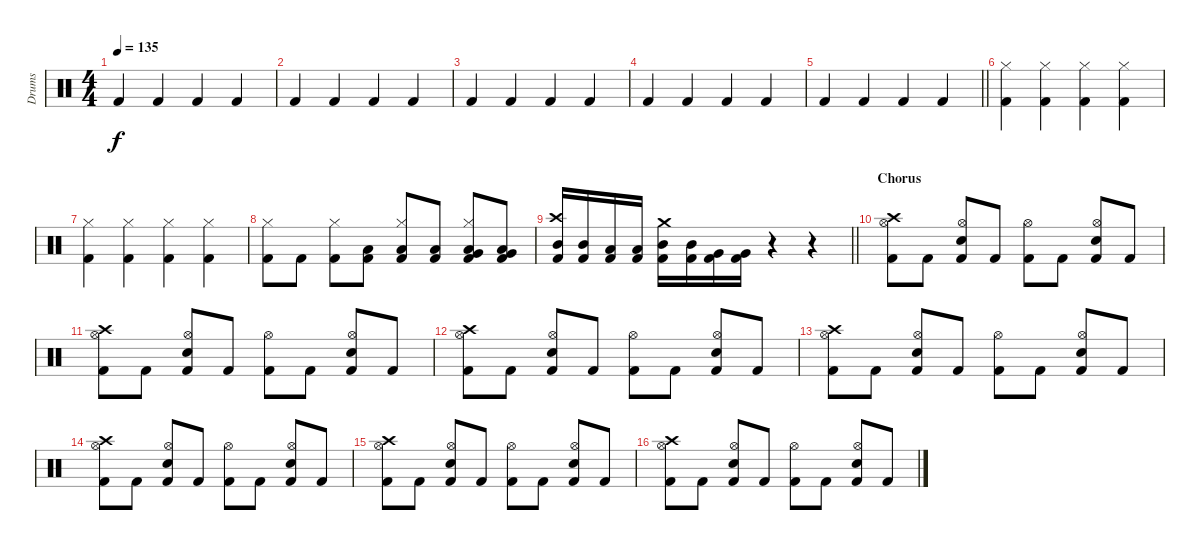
\track ("Drums" "Drums") {instrument percussion}
\staff {score}
\articulation defaults
\ts (4 4)
\tempo 135
\clef neutral
\ks c "Kick (hit) 2".4{dy f} "Kick (hit) 2".4 "Kick (hit) 2".4 "Kick (hit) 2".4
|
"Kick (hit) 2".4 "Kick (hit) 2".4 "Kick (hit) 2".4 "Kick (hit) 2".4 |
"Kick (hit) 2".4 "Kick (hit) 2".4 "Kick (hit) 2".4 "Kick (hit) 2".4 |
"Kick (hit) 2".4 "Kick (hit) 2".4 "Kick (hit) 2".4 "Kick (hit) 2".4 |
\barLineRight lightlight "Kick (hit) 2".4 "Kick (hit) 2".4 "Kick (hit) 2".4 "Kick (hit) 2".4
|
("Hi-Hat (closed)" "Kick (hit) 2").4 ("Hi-Hat (closed)" "Kick (hit) 2").4 ("Hi-Hat (closed)" "Kick (hit) 2").4 ("Hi-Hat (closed)" "Kick (hit) 2").4 |
("Hi-Hat (closed)" "Kick (hit) 2").4 ("Hi-Hat (closed)" "Kick (hit) 2").4 ("Hi-Hat (closed)" "Kick (hit) 2").4 ("Hi-Hat (closed)" "Kick (hit) 2").4 |
("Hi-Hat (closed)" "Kick (hit) 2").8 "Kick (hit) 2".8 ("Hi-Hat (closed)" "Kick (hit) 2").8 ("Low Floor Tom (hit)" "Kick (hit) 2").8 ("Hi-Hat (closed)" "Low Floor Tom (hit)" "Kick (hit) 2").8 ("Low Floor Tom (hit)" "Kick (hit) 2").8 ("Hi-Hat (closed)" "Very Low Tom (hit)" "Low Floor Tom (hit)" "Kick (hit) 2").8 ("Very Low Tom (hit)" "Low Floor Tom (hit)" "Kick (hit) 2").8 |
\barLineRight lightlight
("Crash high (hit)" "Mid Tom (hit)" "Kick (hit) 2").16 ("Mid Tom (hit)" "Kick (hit) 2").16 ("Low Tom (hit)" "Kick (hit) 2").16 ("Low Tom (hit)" "Kick (hit) 2").16 ("Crash medium (hit)" "Mid Tom (hit)" "Kick (hit) 2").16 ("Mid Tom (hit)" "Kick (hit) 2").16 ("Very Low Tom (hit)" "Kick (hit) 2").16 ("Very Low Tom (hit)" "Kick (hit) 2").16 r.4 r.4 |
\section ("" "Chorus")
("Crash high (hit)" "Hi-Hat (open)" "Kick (hit) 2").8 "Kick (hit) 2".8 ("Hi-Hat (open)" "Snare (hit) 2" "Kick (hit) 2").8 "Kick (hit) 2".8 ("Hi-Hat (open)" "Kick (hit) 2").8 "Kick (hit) 2".8 ("Hi-Hat (open)" "Snare (hit) 2" "Kick (hit) 2").8 "Kick (hit) 2".8 |
("Crash high (hit)" "Hi-Hat (open)" "Kick (hit) 2").8 "Kick (hit) 2".8 ("Hi-Hat (open)" "Snare (hit) 2" "Kick (hit) 2").8 "Kick (hit) 2".8 ("Hi-Hat (open)" "Kick (hit) 2").8 "Kick (hit) 2".8 ("Hi-Hat (open)" "Snare (hit) 2" "Kick (hit) 2").8 "Kick (hit) 2".8 |
("Crash high (hit)" "Hi-Hat (open)" "Kick (hit) 2").8 "Kick (hit) 2".8 ("Hi-Hat (open)" "Snare (hit) 2" "Kick (hit) 2").8 "Kick (hit) 2".8 ("Hi-Hat (open)" "Kick (hit) 2").8 "Kick (hit) 2".8 ("Hi-Hat (open)" "Snare (hit) 2" "Kick (hit) 2").8 "Kick (hit) 2".8 |
("Crash high (hit)" "Hi-Hat (open)" "Kick (hit) 2").8 "Kick (hit) 2".8 ("Hi-Hat (open)" "Snare (hit) 2" "Kick (hit) 2").8 "Kick (hit) 2".8 ("Hi-Hat (open)" "Kick (hit) 2").8 "Kick (hit) 2".8 ("Hi-Hat (open)" "Snare (hit) 2" "Kick (hit) 2").8 "Kick (hit) 2".8 |
("Crash high (hit)" "Hi-Hat (open)" "Kick (hit) 2").8 "Kick (hit) 2".8 ("Hi-Hat (open)" "Snare (hit) 2" "Kick (hit) 2").8 "Kick (hit) 2".8 ("Hi-Hat (open)" "Kick (hit) 2").8 "Kick (hit) 2".8 ("Hi-Hat (open)" "Snare (hit) 2" "Kick (hit) 2").8 "Kick (hit) 2".8 |
("Crash high (hit)" "Hi-Hat (open)" "Kick (hit) 2").8 "Kick (hit) 2".8 ("Hi-Hat (open)" "Snare (hit) 2" "Kick (hit) 2").8 "Kick (hit) 2".8 ("Hi-Hat (open)" "Kick (hit) 2").8 "Kick (hit) 2".8 ("Hi-Hat (open)" "Snare (hit) 2" "Kick (hit) 2").8 "Kick (hit) 2".8 |
("Crash high (hit)" "Hi-Hat (open)" "Kick (hit) 2").8 "Kick (hit) 2".8 ("Hi-Hat (open)" "Snare (hit) 2" "Kick (hit) 2").8 "Kick (hit) 2".8 ("Hi-Hat (open)" "Kick (hit) 2").8 "Kick (hit) 2".8 ("Hi-Hat (open)" "Snare (hit) 2" "Kick (hit) 2").8 "Kick (hit) 2".8
